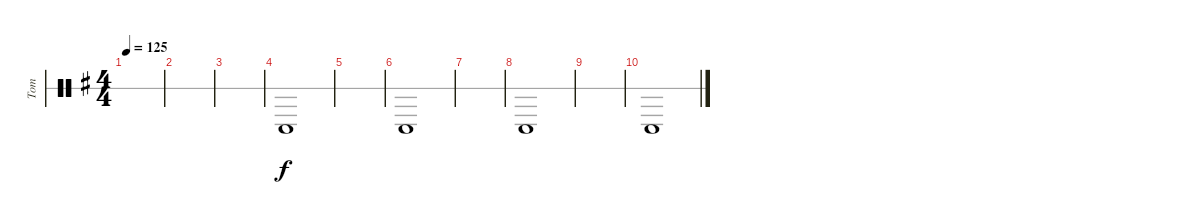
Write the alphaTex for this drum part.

\defaultSystemsLayout 4
\bracketExtendMode groupsimilarinstruments
\otherSystemsTrackNameOrientation horizontal
\track ("Melodic Tom" "Tom") {instrument percussion}
\staff {score 1}
\articulation defaults
\ts (4 4)
\tempo 125
\clef neutral
\scale
0.333333
\ks g
|
\scale
0.333333 |
\scale
0.333333 |
\scale
0.333333 "Timbale high (hit)"{acc forcenatural}.1{beam Down} |
\scale
0.333333 |
\scale
0.333333 "Timbale high (hit)"{acc forcenatural}.1{beam Down} |
\scale
0.333333 |
\scale
0.333333 "Timbale high (hit)"{acc forcenatural}.1{beam Down} |
\scale
0.333333 |
\scale
0.333333 "Timbale high (hit)"{acc forcenatural}.1{beam Down} |
\scale
0.333333 |
\scale
0.333333 |
\scale
0.333333 |
\scale
0.333333 |
\scale
0.333333 |
\scale
0.333333
